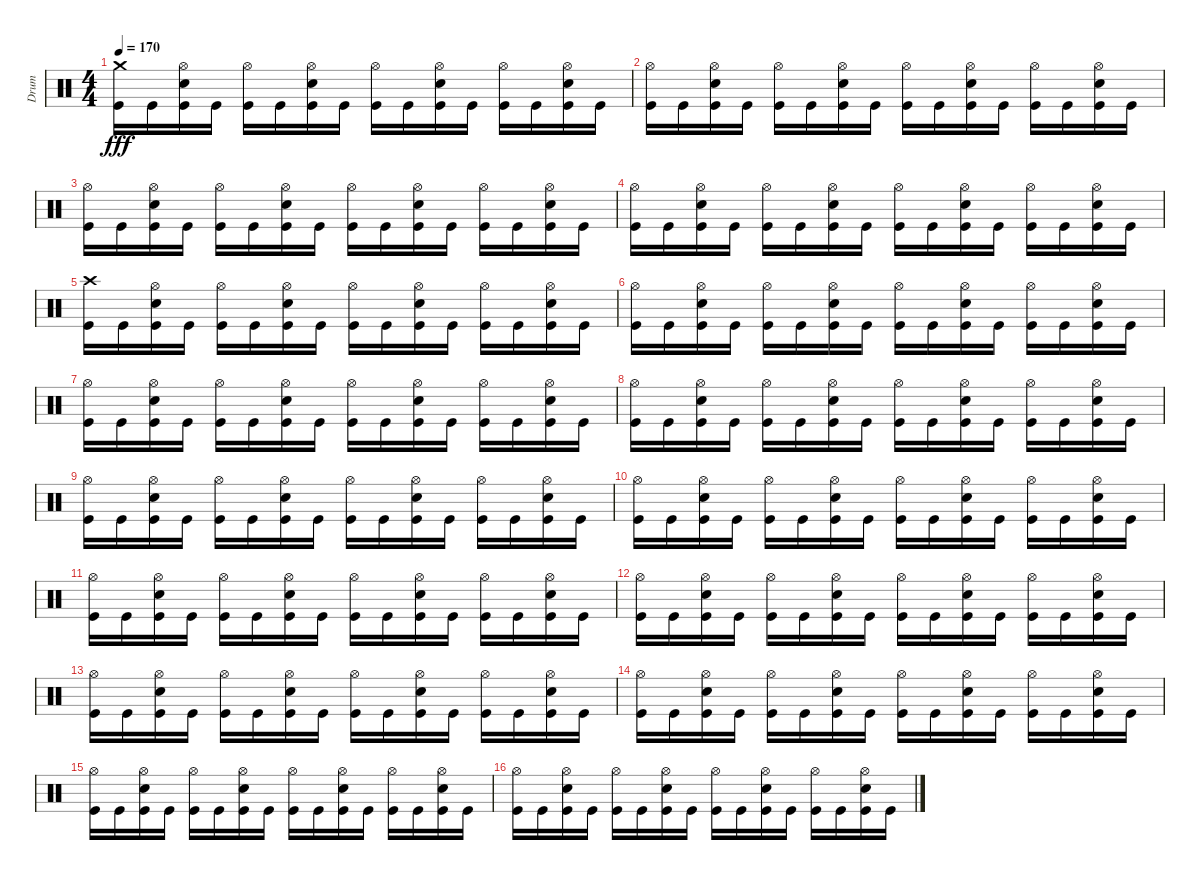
\track ("Drum" "Drum") {instrument percussion}
\staff {score}
\articulation defaults
\ts (4 4)
\tempo 170
\clef neutral
\ks c
("Crash medium (hit)" "Kick (hit)").16{dy fff} "Kick (hit)".16 ("Hi-Hat (open)" "Snare (hit) 2" "Kick (hit)").16 "Kick (hit)".16 ("Hi-Hat (open)" "Kick (hit)").16 "Kick (hit)".16 ("Hi-Hat (open)" "Snare (hit) 2" "Kick (hit)").16 "Kick (hit)".16 ("Hi-Hat (open)" "Kick (hit)").16 "Kick (hit)".16 ("Hi-Hat (open)" "Snare (hit) 2" "Kick (hit)").16 "Kick (hit)".16 ("Hi-Hat (open)" "Kick (hit)").16 "Kick (hit)".16 ("Hi-Hat (open)" "Snare (hit) 2" "Kick (hit)").16 "Kick (hit)".16 |
("Hi-Hat (open)" "Kick (hit)").16 "Kick (hit)".16 ("Hi-Hat (open)" "Snare (hit) 2" "Kick (hit)").16 "Kick (hit)".16 ("Hi-Hat (open)" "Kick (hit)").16 "Kick (hit)".16 ("Hi-Hat (open)" "Snare (hit) 2" "Kick (hit)").16 "Kick (hit)".16 ("Hi-Hat (open)" "Kick (hit)").16 "Kick (hit)".16 ("Hi-Hat (open)" "Snare (hit) 2" "Kick (hit)").16 "Kick (hit)".16 ("Hi-Hat (open)" "Kick (hit)").16 "Kick (hit)".16 ("Hi-Hat (open)" "Snare (hit) 2" "Kick (hit)").16 "Kick (hit)".16 |
("Hi-Hat (open)" "Kick (hit)").16 "Kick (hit)".16 ("Hi-Hat (open)" "Snare (hit) 2" "Kick (hit)").16 "Kick (hit)".16 ("Hi-Hat (open)" "Kick (hit)").16 "Kick (hit)".16 ("Hi-Hat (open)" "Snare (hit) 2" "Kick (hit)").16 "Kick (hit)".16 ("Hi-Hat (open)" "Kick (hit)").16 "Kick (hit)".16 ("Hi-Hat (open)" "Snare (hit) 2" "Kick (hit)").16 "Kick (hit)".16 ("Hi-Hat (open)" "Kick (hit)").16 "Kick (hit)".16 ("Hi-Hat (open)" "Snare (hit) 2" "Kick (hit)").16 "Kick (hit)".16 |
("Hi-Hat (open)" "Kick (hit)").16 "Kick (hit)".16 ("Hi-Hat (open)" "Snare (hit) 2" "Kick (hit)").16 "Kick (hit)".16 ("Hi-Hat (open)" "Kick (hit)").16 "Kick (hit)".16 ("Hi-Hat (open)" "Snare (hit) 2" "Kick (hit)").16 "Kick (hit)".16 ("Hi-Hat (open)" "Kick (hit)").16 "Kick (hit)".16 ("Hi-Hat (open)" "Snare (hit) 2" "Kick (hit)").16 "Kick (hit)".16 ("Hi-Hat (open)" "Kick (hit)").16 "Kick (hit)".16 ("Hi-Hat (open)" "Snare (hit) 2" "Kick (hit)").16 "Kick (hit)".16 |
("Crash high (hit)" "Kick (hit)").16 "Kick (hit)".16 ("Hi-Hat (open)" "Snare (hit) 2" "Kick (hit)").16 "Kick (hit)".16 ("Hi-Hat (open)" "Kick (hit)").16 "Kick (hit)".16 ("Hi-Hat (open)" "Snare (hit) 2" "Kick (hit)").16 "Kick (hit)".16 ("Hi-Hat (open)" "Kick (hit)").16 "Kick (hit)".16 ("Hi-Hat (open)" "Snare (hit) 2" "Kick (hit)").16 "Kick (hit)".16 ("Hi-Hat (open)" "Kick (hit)").16 "Kick (hit)".16 ("Hi-Hat (open)" "Snare (hit) 2" "Kick (hit)").16 "Kick (hit)".16 |
("Hi-Hat (open)" "Kick (hit)").16 "Kick (hit)".16 ("Hi-Hat (open)" "Snare (hit) 2" "Kick (hit)").16 "Kick (hit)".16 ("Hi-Hat (open)" "Kick (hit)").16 "Kick (hit)".16 ("Hi-Hat (open)" "Snare (hit) 2" "Kick (hit)").16 "Kick (hit)".16 ("Hi-Hat (open)" "Kick (hit)").16 "Kick (hit)".16 ("Hi-Hat (open)" "Snare (hit) 2" "Kick (hit)").16 "Kick (hit)".16 ("Hi-Hat (open)" "Kick (hit)").16 "Kick (hit)".16 ("Hi-Hat (open)" "Snare (hit) 2" "Kick (hit)").16 "Kick (hit)".16 |
("Hi-Hat (open)" "Kick (hit)").16 "Kick (hit)".16 ("Hi-Hat (open)" "Snare (hit) 2" "Kick (hit)").16 "Kick (hit)".16 ("Hi-Hat (open)" "Kick (hit)").16 "Kick (hit)".16 ("Hi-Hat (open)" "Snare (hit) 2" "Kick (hit)").16 "Kick (hit)".16 ("Hi-Hat (open)" "Kick (hit)").16 "Kick (hit)".16 ("Hi-Hat (open)" "Snare (hit) 2" "Kick (hit)").16 "Kick (hit)".16 ("Hi-Hat (open)" "Kick (hit)").16 "Kick (hit)".16 ("Hi-Hat (open)" "Snare (hit) 2" "Kick (hit)").16 "Kick (hit)".16 |
("Hi-Hat (open)" "Kick (hit)").16 "Kick (hit)".16 ("Hi-Hat (open)" "Snare (hit) 2" "Kick (hit)").16 "Kick (hit)".16 ("Hi-Hat (open)" "Kick (hit)").16 "Kick (hit)".16 ("Hi-Hat (open)" "Snare (hit) 2" "Kick (hit)").16 "Kick (hit)".16 ("Hi-Hat (open)" "Kick (hit)").16 "Kick (hit)".16 ("Hi-Hat (open)" "Snare (hit) 2" "Kick (hit)").16 "Kick (hit)".16 ("Hi-Hat (open)" "Kick (hit)").16 "Kick (hit)".16 ("Hi-Hat (open)" "Snare (hit) 2" "Kick (hit)").16 "Kick (hit)".16 |
("Hi-Hat (open)" "Kick (hit)").16 "Kick (hit)".16 ("Hi-Hat (open)" "Snare (hit) 2" "Kick (hit)").16 "Kick (hit)".16 ("Hi-Hat (open)" "Kick (hit)").16 "Kick (hit)".16 ("Hi-Hat (open)" "Snare (hit) 2" "Kick (hit)").16 "Kick (hit)".16 ("Hi-Hat (open)" "Kick (hit)").16 "Kick (hit)".16 ("Hi-Hat (open)" "Snare (hit) 2" "Kick (hit)").16 "Kick (hit)".16 ("Hi-Hat (open)" "Kick (hit)").16 "Kick (hit)".16 ("Hi-Hat (open)" "Snare (hit) 2" "Kick (hit)").16 "Kick (hit)".16 |
("Hi-Hat (open)" "Kick (hit)").16 "Kick (hit)".16 ("Hi-Hat (open)" "Snare (hit) 2" "Kick (hit)").16 "Kick (hit)".16 ("Hi-Hat (open)" "Kick (hit)").16 "Kick (hit)".16 ("Hi-Hat (open)" "Snare (hit) 2" "Kick (hit)").16 "Kick (hit)".16 ("Hi-Hat (open)" "Kick (hit)").16 "Kick (hit)".16 ("Hi-Hat (open)" "Snare (hit) 2" "Kick (hit)").16 "Kick (hit)".16 ("Hi-Hat (open)" "Kick (hit)").16 "Kick (hit)".16 ("Hi-Hat (open)" "Snare (hit) 2" "Kick (hit)").16 "Kick (hit)".16 |
("Hi-Hat (open)" "Kick (hit)").16 "Kick (hit)".16 ("Hi-Hat (open)" "Snare (hit) 2" "Kick (hit)").16 "Kick (hit)".16 ("Hi-Hat (open)" "Kick (hit)").16 "Kick (hit)".16 ("Hi-Hat (open)" "Snare (hit) 2" "Kick (hit)").16 "Kick (hit)".16 ("Hi-Hat (open)" "Kick (hit)").16 "Kick (hit)".16 ("Hi-Hat (open)" "Snare (hit) 2" "Kick (hit)").16 "Kick (hit)".16 ("Hi-Hat (open)" "Kick (hit)").16 "Kick (hit)".16 ("Hi-Hat (open)" "Snare (hit) 2" "Kick (hit)").16 "Kick (hit)".16 |
("Hi-Hat (open)" "Kick (hit)").16 "Kick (hit)".16 ("Hi-Hat (open)" "Snare (hit) 2" "Kick (hit)").16 "Kick (hit)".16 ("Hi-Hat (open)" "Kick (hit)").16 "Kick (hit)".16 ("Hi-Hat (open)" "Snare (hit) 2" "Kick (hit)").16 "Kick (hit)".16 ("Hi-Hat (open)" "Kick (hit)").16 "Kick (hit)".16 ("Hi-Hat (open)" "Snare (hit) 2" "Kick (hit)").16 "Kick (hit)".16 ("Hi-Hat (open)" "Kick (hit)").16 "Kick (hit)".16 ("Hi-Hat (open)" "Snare (hit) 2" "Kick (hit)").16 "Kick (hit)".16 |
("Hi-Hat (open)" "Kick (hit)").16 "Kick (hit)".16 ("Hi-Hat (open)" "Snare (hit) 2" "Kick (hit)").16 "Kick (hit)".16 ("Hi-Hat (open)" "Kick (hit)").16 "Kick (hit)".16 ("Hi-Hat (open)" "Snare (hit) 2" "Kick (hit)").16 "Kick (hit)".16 ("Hi-Hat (open)" "Kick (hit)").16 "Kick (hit)".16 ("Hi-Hat (open)" "Snare (hit) 2" "Kick (hit)").16 "Kick (hit)".16 ("Hi-Hat (open)" "Kick (hit)").16 "Kick (hit)".16 ("Hi-Hat (open)" "Snare (hit) 2" "Kick (hit)").16 "Kick (hit)".16 |
("Hi-Hat (open)" "Kick (hit)").16 "Kick (hit)".16 ("Hi-Hat (open)" "Snare (hit) 2" "Kick (hit)").16 "Kick (hit)".16 ("Hi-Hat (open)" "Kick (hit)").16 "Kick (hit)".16 ("Hi-Hat (open)" "Snare (hit) 2" "Kick (hit)").16 "Kick (hit)".16 ("Hi-Hat (open)" "Kick (hit)").16 "Kick (hit)".16 ("Hi-Hat (open)" "Snare (hit) 2" "Kick (hit)").16 "Kick (hit)".16 ("Hi-Hat (open)" "Kick (hit)").16 "Kick (hit)".16 ("Hi-Hat (open)" "Snare (hit) 2" "Kick (hit)").16 "Kick (hit)".16 |
("Hi-Hat (open)" "Kick (hit)").16 "Kick (hit)".16 ("Hi-Hat (open)" "Snare (hit) 2" "Kick (hit)").16 "Kick (hit)".16 ("Hi-Hat (open)" "Kick (hit)").16 "Kick (hit)".16 ("Hi-Hat (open)" "Snare (hit) 2" "Kick (hit)").16 "Kick (hit)".16 ("Hi-Hat (open)" "Kick (hit)").16 "Kick (hit)".16 ("Hi-Hat (open)" "Snare (hit) 2" "Kick (hit)").16 "Kick (hit)".16 ("Hi-Hat (open)" "Kick (hit)").16 "Kick (hit)".16 ("Hi-Hat (open)" "Snare (hit) 2" "Kick (hit)").16 "Kick (hit)".16 |
("Hi-Hat (open)" "Kick (hit)").16 "Kick (hit)".16 ("Hi-Hat (open)" "Snare (hit) 2" "Kick (hit)").16 "Kick (hit)".16 ("Hi-Hat (open)" "Kick (hit)").16 "Kick (hit)".16 ("Hi-Hat (open)" "Snare (hit) 2" "Kick (hit)").16 "Kick (hit)".16 ("Hi-Hat (open)" "Kick (hit)").16 "Kick (hit)".16 ("Hi-Hat (open)" "Snare (hit) 2" "Kick (hit)").16 "Kick (hit)".16 ("Hi-Hat (open)" "Kick (hit)").16 "Kick (hit)".16 ("Hi-Hat (open)" "Snare (hit) 2" "Kick (hit)").16 "Kick (hit)".16
